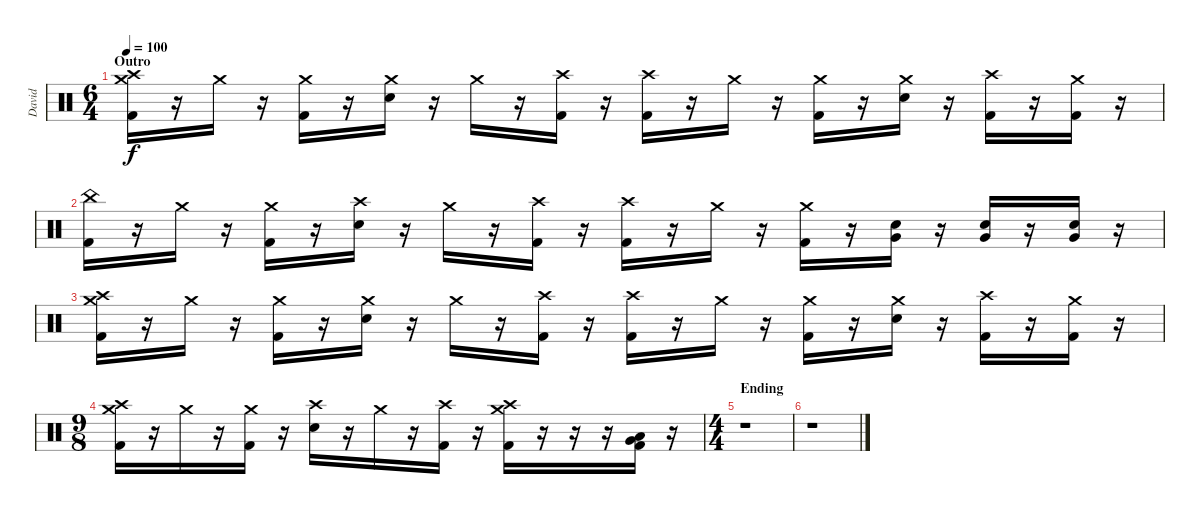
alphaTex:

\track ("David" "David") {instrument percussion}
\staff {score}
\articulation defaults
\ts (6 4)
\section ("" "Outro")
\tempo 100
\clef neutral
\ks c
("Crash medium (hit)" "Crash high (hit)" "Kick (hit) 2").16{dy f} r.16 "Crash medium (hit)".16 r.16 ("Crash medium (hit)" "Kick (hit) 2").16 r.16 ("Crash medium (hit)" "Electric Snare (hit)").16 r.16 "Crash medium (hit)".16 r.16 ("Crash high (hit)" "Kick (hit) 2").16 r.16 ("Crash high (hit)" "Kick (hit) 2").16 r.16 "Crash medium (hit)".16 r.16 ("Crash medium (hit)" "Kick (hit) 2").16 r.16 ("Crash medium (hit)" "Electric Snare (hit)").16 r.16 ("Crash high (hit)" "Kick (hit) 2").16 r.16 ("Crash medium (hit)" "Kick (hit) 2").16 r.16 |
("China (hit)" "Kick (hit) 2").16 r.16 "Crash medium (hit)".16 r.16 ("Crash medium (hit)" "Kick (hit) 2").16 r.16 ("Crash high (hit)" "Electric Snare (hit)").16 r.16 "Crash medium (hit)".16 r.16 ("Crash high (hit)" "Kick (hit) 2").16 r.16 ("Crash high (hit)" "Kick (hit) 2").16 r.16 "Crash medium (hit)".16 r.16 ("Crash medium (hit)" "Kick (hit) 2").16 r.16 ("Electric Snare (hit)" "Very Low Tom (hit)").16 r.16 ("Electric Snare (hit)" "Very Low Tom (hit)").16 r.16 ("Electric Snare (hit)" "Very Low Tom (hit)").16 r.16 |
("Crash medium (hit)" "Crash high (hit)" "Kick (hit) 2").16 r.16 "Crash medium (hit)".16 r.16 ("Crash medium (hit)" "Kick (hit) 2").16 r.16 ("Crash medium (hit)" "Electric Snare (hit)").16 r.16 "Crash medium (hit)".16 r.16 ("Crash high (hit)" "Kick (hit) 2").16 r.16 ("Crash high (hit)" "Kick (hit) 2").16 r.16 "Crash medium (hit)".16 r.16 ("Crash medium (hit)" "Kick (hit) 2").16 r.16 ("Crash medium (hit)" "Electric Snare (hit)").16 r.16 ("Crash high (hit)" "Kick (hit) 2").16 r.16 ("Crash medium (hit)" "Kick (hit) 2").16 r.16 |
\ts (9 8)
("Crash medium (hit)" "Crash high (hit)" "Kick (hit) 2").16 r.16 "Crash medium (hit)".16 r.16 ("Crash medium (hit)" "Kick (hit) 2").16 r.16 ("Crash high (hit)" "Electric Snare (hit)").16 r.16 "Crash medium (hit)".16 r.16 ("Crash high (hit)" "Kick (hit) 2").16 r.16 ("Crash medium (hit)" "Crash high (hit)" "Kick (hit) 2").16 r.16 r.16 r.16 ("Very Low Tom (hit)" "Low Floor Tom (hit)" "Kick (hit) 2").16 r.16 |
\ts (4 4)
\section ("" "Ending")
r.1 |
r.1
